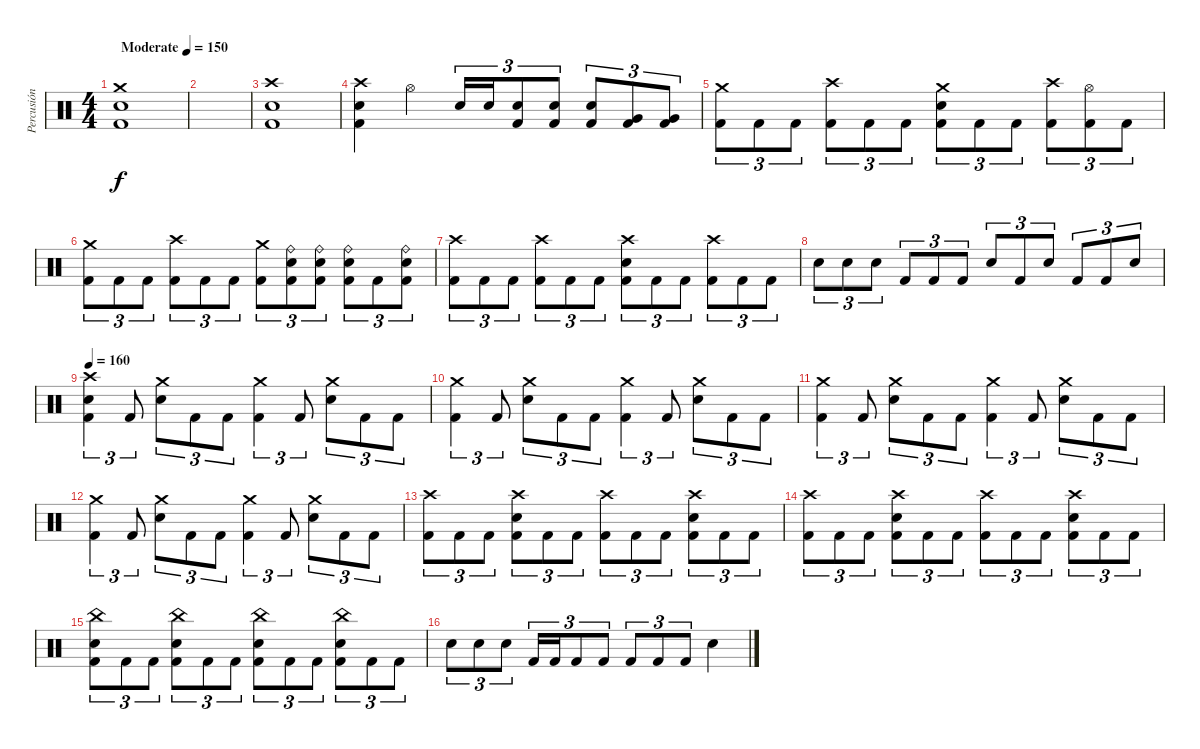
\track ("Percusión" "Percusión") {instrument percussion}
\staff {score}
\articulation defaults
\ts (4 4)
\tempo (150 "Moderate")
\clef neutral
\ks c
("Crash medium (hit)" "Electric Snare (hit)" "Kick (hit) 2").1{dy f} |
|
("Crash high (hit)" "Electric Snare (hit)" "Kick (hit) 2").1 |
("Crash high (hit)" "Electric Snare (hit)" "Kick (hit) 2").4 "Hi-Hat (open)".4 "Electric Snare (hit)".16{tu (3 2)} "Electric Snare (hit)".16{tu (3 2)} ("Electric Snare (hit)" "Kick (hit) 2").8{tu (3 2)} ("Electric Snare (hit)" "Kick (hit) 2").8{tu (3 2)} ("Electric Snare (hit)" "Kick (hit) 2").8{tu (3 2)} ("Very Low Tom (hit)" "Kick (hit) 2").8{tu (3 2)} ("Very Low Tom (hit)" "Kick (hit) 2").8{tu (3 2)} |
("Crash medium (hit)" "Kick (hit) 2").8{tu (3 2)} "Kick (hit) 2".8{tu (3 2)} "Kick (hit) 2".8{tu (3 2)} ("Crash high (hit)" "Kick (hit) 2").8{tu (3 2)} "Kick (hit) 2".8{tu (3 2)} "Kick (hit) 2".8{tu (3 2)} ("Crash medium (hit)" "Electric Snare (hit)" "Kick (hit) 2").8{tu (3 2)} "Kick (hit) 2".8{tu (3 2)} "Kick (hit) 2".8{tu (3 2)} ("Crash high (hit)" "Kick (hit) 2").8{tu (3 2)} ("Hi-Hat (open)" "Kick (hit) 2").8{tu (3 2)} "Kick (hit) 2".8{tu (3 2)} |
("Crash medium (hit)" "Kick (hit) 2").8{tu (3 2)} "Kick (hit) 2".8{tu (3 2)} "Kick (hit) 2".8{tu (3 2)} ("Crash high (hit)" "Kick (hit) 2").8{tu (3 2)} "Kick (hit) 2".8{tu (3 2)} "Kick (hit) 2".8{tu (3 2)} ("Crash medium (hit)" "Kick (hit) 2").8{tu (3 2)} ("Ride (bell)" "Electric Snare (hit)" "Kick (hit) 2").8{tu (3 2)} ("Ride (bell)" "Electric Snare (hit)" "Kick (hit) 2").8{tu (3 2)} ("Ride (bell)" "Electric Snare (hit)" "Kick (hit) 2").8{tu (3 2)} "Kick (hit) 2".8{tu (3 2)} ("Ride (bell)" "Electric Snare (hit)" "Kick (hit) 2").8{tu (3 2)} |
("Crash high (hit)" "Kick (hit) 2").8{tu (3 2)} "Kick (hit) 2".8{tu (3 2)} "Kick (hit) 2".8{tu (3 2)} ("Crash high (hit)" "Kick (hit) 2").8{tu (3 2)} "Kick (hit) 2".8{tu (3 2)} "Kick (hit) 2".8{tu (3 2)} ("Crash high (hit)" "Electric Snare (hit)" "Kick (hit) 2").8{tu (3 2)} "Kick (hit) 2".8{tu (3 2)} "Kick (hit) 2".8{tu (3 2)} ("Crash high (hit)" "Kick (hit) 2").8{tu (3 2)} "Kick (hit) 2".8{tu (3 2)} "Kick (hit) 2".8{tu (3 2)} |
"Electric Snare (hit)".8{tu (3 2)} "Electric Snare (hit)".8{tu (3 2)} "Electric Snare (hit)".8{tu (3 2)} "Kick (hit) 2".8{tu (3 2)} "Kick (hit) 2".8{tu (3 2)} "Kick (hit) 2".8{tu (3 2)} "Electric Snare (hit)".8{tu (3 2)} "Kick (hit) 2".8{tu (3 2)} "Electric Snare (hit)".8{tu (3 2)} "Kick (hit) 2".8{tu (3 2)} "Kick (hit) 2".8{tu (3 2)} "Electric Snare (hit)".8{tu (3 2)} |
\tempo 160
("Crash high (hit)" "Electric Snare (hit)" "Kick (hit) 2").4{tu (3 2)} "Kick (hit) 2".8{tu (3 2)} ("Crash medium (hit)" "Electric Snare (hit)").8{tu (3 2)} "Kick (hit) 2".8{tu (3 2)} "Kick (hit) 2".8{tu (3 2)} ("Crash medium (hit)" "Kick (hit) 2").4{tu (3 2)} "Kick (hit) 2".8{tu (3 2)} ("Crash medium (hit)" "Electric Snare (hit)").8{tu (3 2)} "Kick (hit) 2".8{tu (3 2)} "Kick (hit) 2".8{tu (3 2)} |
("Crash medium (hit)" "Kick (hit) 2").4{tu (3 2)} "Kick (hit) 2".8{tu (3 2)} ("Crash medium (hit)" "Electric Snare (hit)").8{tu (3 2)} "Kick (hit) 2".8{tu (3 2)} "Kick (hit) 2".8{tu (3 2)} ("Crash medium (hit)" "Kick (hit) 2").4{tu (3 2)} "Kick (hit) 2".8{tu (3 2)} ("Crash medium (hit)" "Electric Snare (hit)").8{tu (3 2)} "Kick (hit) 2".8{tu (3 2)} "Kick (hit) 2".8{tu (3 2)} |
("Crash medium (hit)" "Kick (hit) 2").4{tu (3 2)} "Kick (hit) 2".8{tu (3 2)} ("Crash medium (hit)" "Electric Snare (hit)").8{tu (3 2)} "Kick (hit) 2".8{tu (3 2)} "Kick (hit) 2".8{tu (3 2)} ("Crash medium (hit)" "Kick (hit) 2").4{tu (3 2)} "Kick (hit) 2".8{tu (3 2)} ("Crash medium (hit)" "Electric Snare (hit)").8{tu (3 2)} "Kick (hit) 2".8{tu (3 2)} "Kick (hit) 2".8{tu (3 2)} |
("Crash medium (hit)" "Kick (hit) 2").4{tu (3 2)} "Kick (hit) 2".8{tu (3 2)} ("Crash medium (hit)" "Electric Snare (hit)").8{tu (3 2)} "Kick (hit) 2".8{tu (3 2)} "Kick (hit) 2".8{tu (3 2)} ("Crash medium (hit)" "Kick (hit) 2").4{tu (3 2)} "Kick (hit) 2".8{tu (3 2)} ("Crash medium (hit)" "Electric Snare (hit)").8{tu (3 2)} "Kick (hit) 2".8{tu (3 2)} "Kick (hit) 2".8{tu (3 2)} |
("Crash high (hit)" "Kick (hit) 2").8{tu (3 2)} "Kick (hit) 2".8{tu (3 2)} "Kick (hit) 2".8{tu (3 2)} ("Crash high (hit)" "Electric Snare (hit)" "Kick (hit) 2").8{tu (3 2)} "Kick (hit) 2".8{tu (3 2)} "Kick (hit) 2".8{tu (3 2)} ("Crash high (hit)" "Kick (hit) 2").8{tu (3 2)} "Kick (hit) 2".8{tu (3 2)} "Kick (hit) 2".8{tu (3 2)} ("Crash high (hit)" "Electric Snare (hit)" "Kick (hit) 2").8{tu (3 2)} "Kick (hit) 2".8{tu (3 2)} "Kick (hit) 2".8{tu (3 2)} |
("Crash high (hit)" "Kick (hit) 2").8{tu (3 2)} "Kick (hit) 2".8{tu (3 2)} "Kick (hit) 2".8{tu (3 2)} ("Crash high (hit)" "Electric Snare (hit)" "Kick (hit) 2").8{tu (3 2)} "Kick (hit) 2".8{tu (3 2)} "Kick (hit) 2".8{tu (3 2)} ("Crash high (hit)" "Kick (hit) 2").8{tu (3 2)} "Kick (hit) 2".8{tu (3 2)} "Kick (hit) 2".8{tu (3 2)} ("Crash high (hit)" "Electric Snare (hit)" "Kick (hit) 2").8{tu (3 2)} "Kick (hit) 2".8{tu (3 2)} "Kick (hit) 2".8{tu (3 2)} |
("China (hit)" "Electric Snare (hit)" "Kick (hit) 2").8{tu (3 2)} "Kick (hit) 2".8{tu (3 2)} "Kick (hit) 2".8{tu (3 2)} ("China (hit)" "Electric Snare (hit)" "Kick (hit) 2").8{tu (3 2)} "Kick (hit) 2".8{tu (3 2)} "Kick (hit) 2".8{tu (3 2)} ("China (hit)" "Electric Snare (hit)" "Kick (hit) 2").8{tu (3 2)} "Kick (hit) 2".8{tu (3 2)} "Kick (hit) 2".8{tu (3 2)} ("China (hit)" "Electric Snare (hit)" "Kick (hit) 2").8{tu (3 2)} "Kick (hit) 2".8{tu (3 2)} "Kick (hit) 2".8{tu (3 2)} |
"Electric Snare (hit)".8{tu (3 2)} "Electric Snare (hit)".8{tu (3 2)} "Electric Snare (hit)".8{tu (3 2)} "Kick (hit) 2".16{tu (3 2)} "Kick (hit) 2".16{tu (3 2)} "Kick (hit) 2".8{tu (3 2)} "Kick (hit) 2".8{tu (3 2)} "Kick (hit) 2".8{tu (3 2)} "Kick (hit) 2".8{tu (3 2)} "Kick (hit) 2".8{tu (3 2)} "Electric Snare (hit)".4
